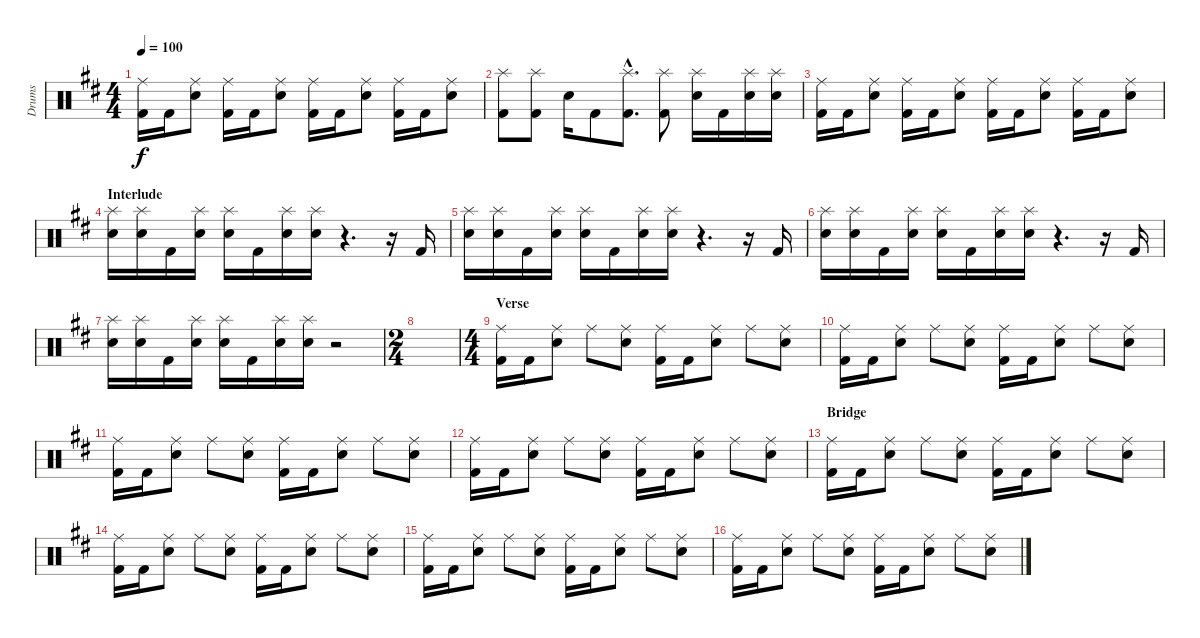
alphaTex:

\track ("Drums" "Drums") {instrument percussion}
\staff {score}
\articulation defaults
\ts (4 4)
\tempo 100
\clef neutral
\ks d
("Kick (hit) 2" "Ride (middle)").16{dy f} "Kick (hit) 2".16 ("Electric Snare (hit)" "Ride (middle)").8 ("Kick (hit) 2" "Ride (middle)").16 "Kick (hit) 2".16 ("Electric Snare (hit)" "Ride (middle)").8 ("Kick (hit) 2" "Ride (middle)").16 "Kick (hit) 2".16 ("Electric Snare (hit)" "Ride (middle)").8 ("Kick (hit) 2" "Ride (middle)").16 "Kick (hit) 2".16 ("Electric Snare (hit)" "Ride (middle)").8 |
("Kick (hit) 2" "Splash (hit)").8 ("Kick (hit) 2" "Splash (hit)").8 "Electric Snare (hit)".16 "Kick (hit) 2".8 ("Kick (hit) 2"{hac} "Splash (hit)"{hac}).8{d} ("Kick (hit) 2" "Splash (hit)").8 ("Electric Snare (hit)" "Splash (hit)").16 "Kick (hit) 2".16 ("Electric Snare (hit)" "Splash (hit)").16 ("Electric Snare (hit)" "Splash (hit)").16 |
("Kick (hit) 2" "Ride (middle)").16 "Kick (hit) 2".16 ("Electric Snare (hit)" "Ride (middle)").8 ("Kick (hit) 2" "Ride (middle)").16 "Kick (hit) 2".16 ("Electric Snare (hit)" "Ride (middle)").8 ("Kick (hit) 2" "Ride (middle)").16 "Kick (hit) 2".16 ("Electric Snare (hit)" "Ride (middle)").8 ("Kick (hit) 2" "Ride (middle)").16 "Kick (hit) 2".16 ("Electric Snare (hit)" "Ride (middle)").8 |
\section ("" "Interlude")
("Electric Snare (hit)" "Splash (hit)").16 ("Electric Snare (hit)" "Splash (hit)").16 "Kick (hit) 2".16 ("Electric Snare (hit)" "Splash (hit)").16 ("Electric Snare (hit)" "Splash (hit)").16 "Kick (hit) 2".16 ("Electric Snare (hit)" "Splash (hit)").16 ("Electric Snare (hit)" "Splash (hit)").16 r.4{d} r.16 "Kick (hit) 2".16 |
("Electric Snare (hit)" "Splash (hit)").16 ("Electric Snare (hit)" "Splash (hit)").16 "Kick (hit) 2".16 ("Electric Snare (hit)" "Splash (hit)").16 ("Electric Snare (hit)" "Splash (hit)").16 "Kick (hit) 2".16 ("Electric Snare (hit)" "Splash (hit)").16 ("Electric Snare (hit)" "Splash (hit)").16 r.4{d} r.16 "Kick (hit) 2".16 |
("Electric Snare (hit)" "Splash (hit)").16 ("Electric Snare (hit)" "Splash (hit)").16 "Kick (hit) 2".16 ("Electric Snare (hit)" "Splash (hit)").16 ("Electric Snare (hit)" "Splash (hit)").16 "Kick (hit) 2".16 ("Electric Snare (hit)" "Splash (hit)").16 ("Electric Snare (hit)" "Splash (hit)").16 r.4{d} r.16 "Kick (hit) 2".16 |
("Electric Snare (hit)" "Splash (hit)").16 ("Electric Snare (hit)" "Splash (hit)").16 "Kick (hit) 2".16 ("Electric Snare (hit)" "Splash (hit)").16 ("Electric Snare (hit)" "Splash (hit)").16 "Kick (hit) 2".16 ("Electric Snare (hit)" "Splash (hit)").16 ("Electric Snare (hit)" "Splash (hit)").16 r.2 |
\ts (2 4)
|
\ts (4 4)
\section ("" "Verse")
("Kick (hit) 2" "Ride (middle)").16 "Kick (hit) 2".16 ("Electric Snare (hit)" "Ride (middle)").8 "Ride (middle)".8 ("Electric Snare (hit)" "Ride (middle)").8 ("Kick (hit) 2" "Ride (middle)").16 "Kick (hit) 2".16 ("Electric Snare (hit)" "Ride (middle)").8 "Ride (middle)".8 ("Electric Snare (hit)" "Ride (middle)").8 |
("Kick (hit) 2" "Ride (middle)").16 "Kick (hit) 2".16 ("Electric Snare (hit)" "Ride (middle)").8 "Ride (middle)".8 ("Electric Snare (hit)" "Ride (middle)").8 ("Kick (hit) 2" "Ride (middle)").16 "Kick (hit) 2".16 ("Electric Snare (hit)" "Ride (middle)").8 "Ride (middle)".8 ("Electric Snare (hit)" "Ride (middle)").8 |
("Kick (hit) 2" "Ride (middle)").16 "Kick (hit) 2".16 ("Electric Snare (hit)" "Ride (middle)").8 "Ride (middle)".8 ("Electric Snare (hit)" "Ride (middle)").8 ("Kick (hit) 2" "Ride (middle)").16 "Kick (hit) 2".16 ("Electric Snare (hit)" "Ride (middle)").8 "Ride (middle)".8 ("Electric Snare (hit)" "Ride (middle)").8 |
("Kick (hit) 2" "Ride (middle)").16 "Kick (hit) 2".16 ("Electric Snare (hit)" "Ride (middle)").8 "Ride (middle)".8 ("Electric Snare (hit)" "Ride (middle)").8 ("Kick (hit) 2" "Ride (middle)").16 "Kick (hit) 2".16 ("Electric Snare (hit)" "Ride (middle)").8 "Ride (middle)".8 ("Electric Snare (hit)" "Ride (middle)").8 |
\section ("" "Bridge")
("Kick (hit) 2" "Ride (middle)").16 "Kick (hit) 2".16 ("Electric Snare (hit)" "Ride (middle)").8 "Ride (middle)".8 ("Electric Snare (hit)" "Ride (middle)").8 ("Kick (hit) 2" "Ride (middle)").16 "Kick (hit) 2".16 ("Electric Snare (hit)" "Ride (middle)").8 "Ride (middle)".8 ("Electric Snare (hit)" "Ride (middle)").8 |
("Kick (hit) 2" "Ride (middle)").16 "Kick (hit) 2".16 ("Electric Snare (hit)" "Ride (middle)").8 "Ride (middle)".8 ("Electric Snare (hit)" "Ride (middle)").8 ("Kick (hit) 2" "Ride (middle)").16 "Kick (hit) 2".16 ("Electric Snare (hit)" "Ride (middle)").8 "Ride (middle)".8 ("Electric Snare (hit)" "Ride (middle)").8 |
("Kick (hit) 2" "Ride (middle)").16 "Kick (hit) 2".16 ("Electric Snare (hit)" "Ride (middle)").8 "Ride (middle)".8 ("Electric Snare (hit)" "Ride (middle)").8 ("Kick (hit) 2" "Ride (middle)").16 "Kick (hit) 2".16 ("Electric Snare (hit)" "Ride (middle)").8 "Ride (middle)".8 ("Electric Snare (hit)" "Ride (middle)").8 |
("Kick (hit) 2" "Ride (middle)").16 "Kick (hit) 2".16 ("Electric Snare (hit)" "Ride (middle)").8 "Ride (middle)".8 ("Electric Snare (hit)" "Ride (middle)").8 ("Kick (hit) 2" "Ride (middle)").16 "Kick (hit) 2".16 ("Electric Snare (hit)" "Ride (middle)").8 "Ride (middle)".8 ("Electric Snare (hit)" "Ride (middle)").8
